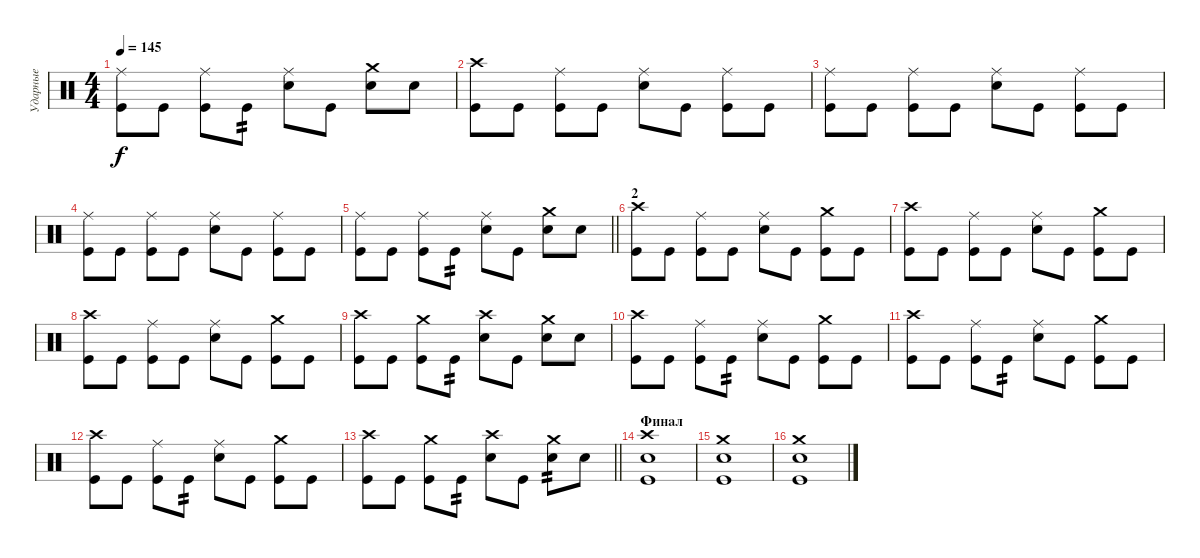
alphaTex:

\track ("Ударные" "Ударные") {instrument percussion}
\staff {score}
\articulation defaults
\ts (4 4)
\tempo 145
\clef neutral
\ks c
("Ride (middle)" "Kick (hit)").8{dy f} "Kick (hit)".8 ("Ride (middle)" "Kick (hit)").8 "Kick (hit)".8{tp 2} ("Ride (middle)" "Electric Snare (hit)").8 "Kick (hit)".8 ("Crash medium (hit)" "Electric Snare (hit)").8 "Electric Snare (hit)".8 |
("Crash high (hit)" "Kick (hit)").8 "Kick (hit)".8 ("Ride (middle)" "Kick (hit)").8 "Kick (hit)".8 ("Ride (middle)" "Electric Snare (hit)").8 "Kick (hit)".8 ("Ride (middle)" "Kick (hit)").8 "Kick (hit)".8 |
("Ride (middle)" "Kick (hit)").8 "Kick (hit)".8 ("Ride (middle)" "Kick (hit)").8 "Kick (hit)".8 ("Ride (middle)" "Electric Snare (hit)").8 "Kick (hit)".8 ("Ride (middle)" "Kick (hit)").8 "Kick (hit)".8 |
("Ride (middle)" "Kick (hit)").8 "Kick (hit)".8 ("Ride (middle)" "Kick (hit)").8 "Kick (hit)".8 ("Ride (middle)" "Electric Snare (hit)").8 "Kick (hit)".8 ("Ride (middle)" "Kick (hit)").8 "Kick (hit)".8 |
\barLineRight lightlight
("Ride (middle)" "Kick (hit)").8 "Kick (hit)".8 ("Ride (middle)" "Kick (hit)").8 "Kick (hit)".8{tp 2} ("Ride (middle)" "Electric Snare (hit)").8 "Kick (hit)".8 ("Crash medium (hit)" "Electric Snare (hit)").8 "Electric Snare (hit)".8 |
\section ("" "2")
("Crash high (hit)" "Kick (hit)").8 "Kick (hit)".8 ("Ride (middle)" "Kick (hit)").8 "Kick (hit)".8 ("Ride (middle)" "Electric Snare (hit)").8 "Kick (hit)".8 ("Crash medium (hit)" "Kick (hit)").8 "Kick (hit)".8 |
("Crash high (hit)" "Kick (hit)").8 "Kick (hit)".8 ("Ride (middle)" "Kick (hit)").8 "Kick (hit)".8 ("Ride (middle)" "Electric Snare (hit)").8 "Kick (hit)".8 ("Crash medium (hit)" "Kick (hit)").8 "Kick (hit)".8 |
("Crash high (hit)" "Kick (hit)").8 "Kick (hit)".8 ("Ride (middle)" "Kick (hit)").8 "Kick (hit)".8 ("Ride (middle)" "Electric Snare (hit)").8 "Kick (hit)".8 ("Crash medium (hit)" "Kick (hit)").8 "Kick (hit)".8 |
("Crash high (hit)" "Kick (hit)").8 "Kick (hit)".8 ("Crash medium (hit)" "Kick (hit)").8 "Kick (hit)".8{tp 2} ("Crash high (hit)" "Electric Snare (hit)").8 "Kick (hit)".8 ("Crash medium (hit)" "Electric Snare (hit)").8 "Electric Snare (hit)".8 |
("Crash high (hit)" "Kick (hit)").8 "Kick (hit)".8 ("Ride (middle)" "Kick (hit)").8 "Kick (hit)".8{tp 2} ("Ride (middle)" "Electric Snare (hit)").8 "Kick (hit)".8 ("Crash medium (hit)" "Kick (hit)").8 "Kick (hit)".8 |
("Crash high (hit)" "Kick (hit)").8 "Kick (hit)".8 ("Ride (middle)" "Kick (hit)").8 "Kick (hit)".8{tp 2} ("Ride (middle)" "Electric Snare (hit)").8 "Kick (hit)".8 ("Crash medium (hit)" "Kick (hit)").8 "Kick (hit)".8 |
("Crash high (hit)" "Kick (hit)").8 "Kick (hit)".8 ("Ride (middle)" "Kick (hit)").8 "Kick (hit)".8{tp 2} ("Ride (middle)" "Electric Snare (hit)").8 "Kick (hit)".8 ("Crash medium (hit)" "Kick (hit)").8 "Kick (hit)".8 |
\barLineRight lightlight
("Crash high (hit)" "Kick (hit)").8 "Kick (hit)".8 ("Crash medium (hit)" "Kick (hit)").8 "Kick (hit)".8{tp 2} ("Crash high (hit)" "Electric Snare (hit)").8 "Kick (hit)".8 ("Crash medium (hit)" "Electric Snare (hit)").8{tp 2} "Electric Snare (hit)".8 |
\section ("" "Финал")
("Crash high (hit)" "Electric Snare (hit)" "Kick (hit)").1 |
("Crash medium (hit)" "Electric Snare (hit)" "Kick (hit)").1 |
("Crash medium (hit)" "Electric Snare (hit)" "Kick (hit)").1
